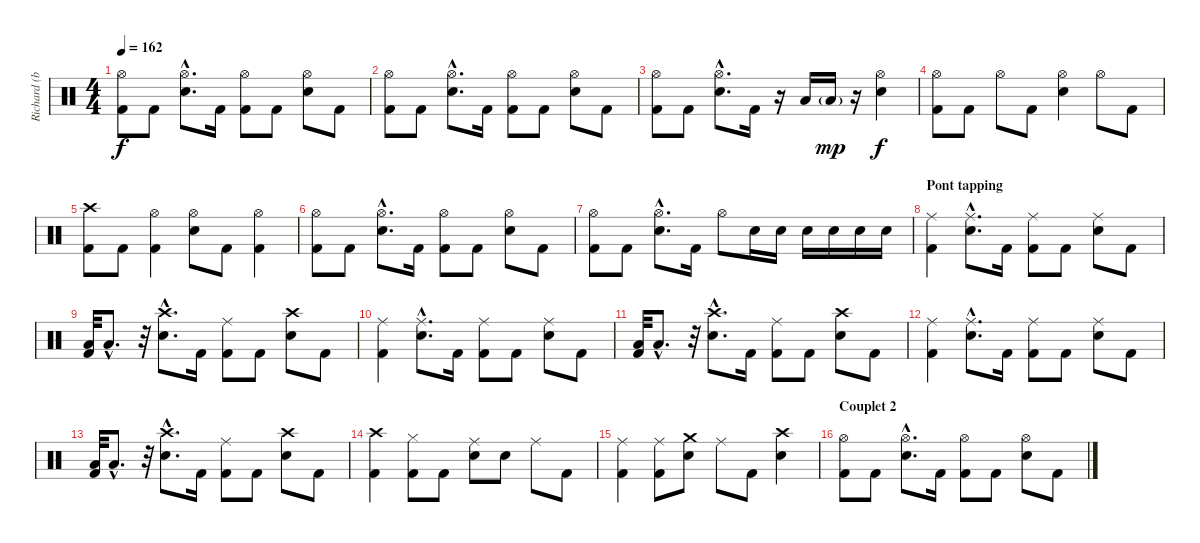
\track ("Richard (batterie)" "Richard (b") {instrument percussion}
\staff {score}
\articulation defaults
\ts (4 4)
\tempo 162
\clef neutral
\ks c
("Hi-Hat (open)" "Kick (hit) 2").8{dy f} "Kick (hit) 2".8 ("Hi-Hat (open)"{hac} "Snare (hit) 2"{hac}).8{d} "Kick (hit) 2".16 ("Hi-Hat (open)" "Kick (hit) 2").8 "Kick (hit) 2".8 ("Hi-Hat (open)" "Snare (hit) 2").8 "Kick (hit) 2".8 |
("Hi-Hat (open)" "Kick (hit) 2").8 "Kick (hit) 2".8 ("Hi-Hat (open)"{hac} "Snare (hit) 2"{hac}).8{d} "Kick (hit) 2".16 ("Hi-Hat (open)" "Kick (hit) 2").8 "Kick (hit) 2".8 ("Hi-Hat (open)" "Snare (hit) 2").8 "Kick (hit) 2".8 |
("Hi-Hat (open)" "Kick (hit) 2").8 "Kick (hit) 2".8 ("Hi-Hat (open)"{hac} "Snare (hit) 2"{hac}).8{d} "Kick (hit) 2".16 r.16 "Low Tom (hit)".16 "Low Tom (hit)"{g}.16{dy mp} r.16 ("Hi-Hat (open)" "Snare (hit) 2").4{dy f} |
("Hi-Hat (open)" "Kick (hit) 2").8 "Kick (hit) 2".8 "Hi-Hat (open)".8 "Kick (hit) 2".8 ("Hi-Hat (open)" "Snare (hit) 2").4 "Hi-Hat (open)".8 "Kick (hit) 2".8 |
("Crash high (hit)" "Kick (hit) 2").8 "Kick (hit) 2".8 ("Hi-Hat (open)" "Kick (hit) 2").4 ("Hi-Hat (open)" "Snare (hit) 2").8 "Kick (hit) 2".8 ("Hi-Hat (open)" "Kick (hit) 2").4 |
("Hi-Hat (open)" "Kick (hit) 2").8 "Kick (hit) 2".8 ("Hi-Hat (open)"{hac} "Snare (hit) 2"{hac}).8{d} "Kick (hit) 2".16 ("Hi-Hat (open)" "Kick (hit) 2").8 "Kick (hit) 2".8 ("Hi-Hat (open)" "Snare (hit) 2").8 "Kick (hit) 2".8 |
("Hi-Hat (open)" "Kick (hit) 2").8 "Kick (hit) 2".8 ("Hi-Hat (open)"{hac} "Snare (hit) 2"{hac}).8{d} "Kick (hit) 2".16 "Hi-Hat (open)".8 "Snare (hit) 2".16 "Snare (hit) 2".16 "Snare (hit) 2".16 "Snare (hit) 2".16 "Snare (hit) 2".16 "Snare (hit) 2".16 |
\section ("" "Pont tapping")
("Ride (middle)" "Kick (hit) 2").4 ("Ride (middle)"{hac} "Snare (hit) 2"{hac}).8{d} "Kick (hit) 2".16 ("Ride (middle)" "Kick (hit) 2").8 "Kick (hit) 2".8 ("Ride (middle)" "Snare (hit) 2").8 "Kick (hit) 2".8 |
("Low Tom (hit)" "Kick (hit) 2").32 "Low Tom (hit)"{hac}.8{d} r.32 ("Crash high (hit)"{hac} "Snare (hit) 2"{hac}).8{d} "Kick (hit) 2".16 ("Ride (middle)" "Kick (hit) 2").8 "Kick (hit) 2".8 ("Crash high (hit)" "Snare (hit) 2").8 "Kick (hit) 2".8 |
("Ride (middle)" "Kick (hit) 2").4 ("Ride (middle)"{hac} "Snare (hit) 2"{hac}).8{d} "Kick (hit) 2".16 ("Ride (middle)" "Kick (hit) 2").8 "Kick (hit) 2".8 ("Ride (middle)" "Snare (hit) 2").8 "Kick (hit) 2".8 |
("Low Tom (hit)" "Kick (hit) 2").32 "Low Tom (hit)"{hac}.8{d} r.32 ("Crash high (hit)"{hac} "Snare (hit) 2"{hac}).8{d} "Kick (hit) 2".16 ("Ride (middle)" "Kick (hit) 2").8 "Kick (hit) 2".8 ("Crash high (hit)" "Snare (hit) 2").8 "Kick (hit) 2".8 |
("Ride (middle)" "Kick (hit) 2").4 ("Ride (middle)"{hac} "Snare (hit) 2"{hac}).8{d} "Kick (hit) 2".16 ("Ride (middle)" "Kick (hit) 2").8 "Kick (hit) 2".8 ("Ride (middle)" "Snare (hit) 2").8 "Kick (hit) 2".8 |
("Low Tom (hit)" "Kick (hit) 2").32 "Low Tom (hit)"{hac}.8{d} r.32 ("Crash high (hit)"{hac} "Snare (hit) 2"{hac}).8{d} "Kick (hit) 2".16 ("Ride (middle)" "Kick (hit) 2").8 "Kick (hit) 2".8 ("Crash high (hit)" "Snare (hit) 2").8 "Kick (hit) 2".8 |
("Crash high (hit)" "Kick (hit) 2").4 ("Hi-Hat (closed)" "Kick (hit) 2").8 "Kick (hit) 2".8 ("Ride (middle)" "Snare (hit) 2").8 "Snare (hit) 2".8 "Ride (middle)".8 "Kick (hit) 2".8 |
("Ride (middle)" "Kick (hit) 2").4 ("Ride (middle)" "Kick (hit) 2").8 ("Crash medium (hit)" "Snare (hit) 2").8 "Ride (middle)".8 "Kick (hit) 2".8 ("Crash high (hit)" "Snare (hit) 2").4 |
\section ("" "Couplet 2")
("Hi-Hat (open)" "Kick (hit) 2").8 "Kick (hit) 2".8 ("Hi-Hat (open)"{hac} "Snare (hit) 2"{hac}).8{d} "Kick (hit) 2".16 ("Hi-Hat (open)" "Kick (hit) 2").8 "Kick (hit) 2".8 ("Hi-Hat (open)" "Snare (hit) 2").8 "Kick (hit) 2".8
